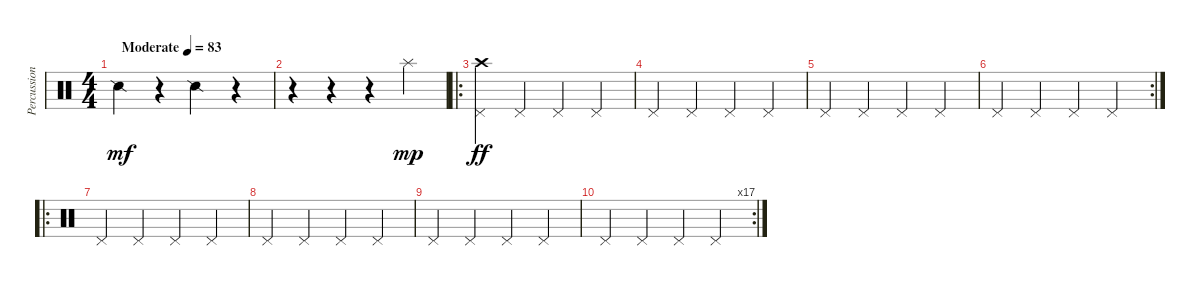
\track ("Percussion" "Percussion") {instrument percussion}
\staff {score}
\articulation defaults
\ts (4 4)
\tempo (83 "Moderate")
\clef neutral
\ks c "Snare (side stick) 2".4{dy mf}
r.4 "Snare (side stick) 2".4 r.4 |
r.4 r.4 r.4 "Splash (hit)".4{dy mp} |
\ro
("Crash high (hit)" "Pedal Hi-Hat (hit)").4{dy ff} "Pedal Hi-Hat (hit)".4 "Pedal Hi-Hat (hit)".4 "Pedal Hi-Hat (hit)".4 |
"Pedal Hi-Hat (hit)".4 "Pedal Hi-Hat (hit)".4 "Pedal Hi-Hat (hit)".4 "Pedal Hi-Hat (hit)".4 |
"Pedal Hi-Hat (hit)".4 "Pedal Hi-Hat (hit)".4 "Pedal Hi-Hat (hit)".4 "Pedal Hi-Hat (hit)".4 |
\rc 2 "Pedal Hi-Hat (hit)".4 "Pedal Hi-Hat (hit)".4 "Pedal Hi-Hat (hit)".4 "Pedal Hi-Hat (hit)".4
|
\ro "Pedal Hi-Hat (hit)".4 "Pedal Hi-Hat (hit)".4 "Pedal Hi-Hat (hit)".4 "Pedal Hi-Hat (hit)".4
|
"Pedal Hi-Hat (hit)".4 "Pedal Hi-Hat (hit)".4 "Pedal Hi-Hat (hit)".4 "Pedal Hi-Hat (hit)".4 |
"Pedal Hi-Hat (hit)".4 "Pedal Hi-Hat (hit)".4 "Pedal Hi-Hat (hit)".4 "Pedal Hi-Hat (hit)".4 |
\rc 17 "Pedal Hi-Hat (hit)".4 "Pedal Hi-Hat (hit)".4 "Pedal Hi-Hat (hit)".4 "Pedal Hi-Hat (hit)".4
